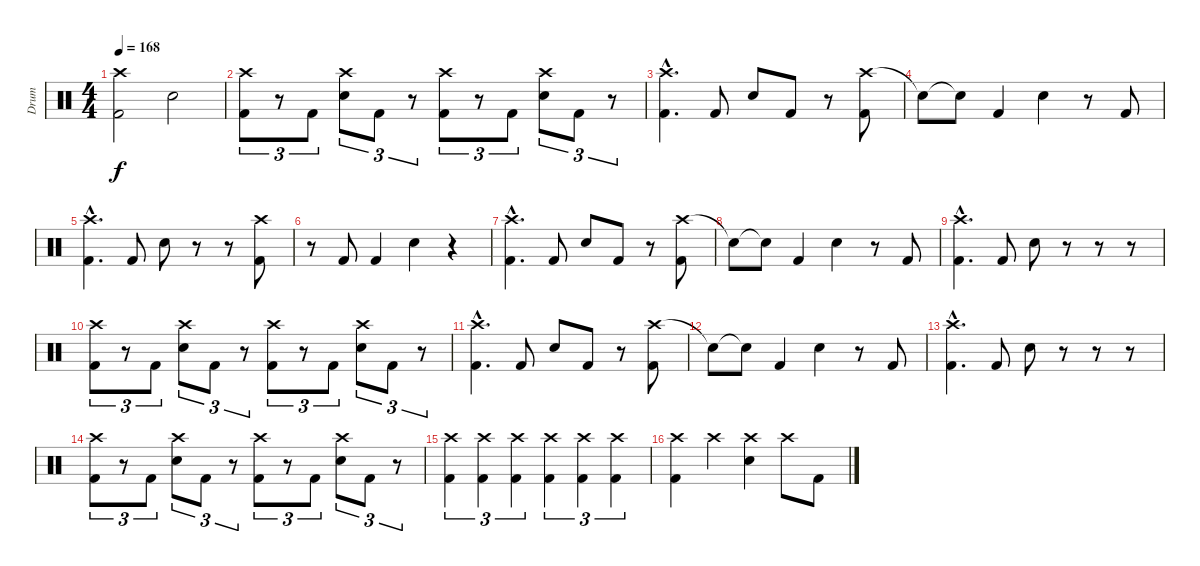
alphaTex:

\track ("Drum" "Drum") {instrument percussion}
\staff {score}
\articulation defaults
\ts (4 4)
\tempo 168
\clef neutral
\ks c
("Crash high (hit)" "Kick (hit) 2").2{dy f} "Electric Snare (hit)".2 |
("Crash high (hit)" "Kick (hit) 2").8{tu (3 2)} r.8{tu (3 2)} "Kick (hit) 2".8{tu (3 2)} ("Crash high (hit)" "Electric Snare (hit)").8{tu (3 2)} "Kick (hit) 2".8{tu (3 2)} r.8{tu (3 2)} ("Crash high (hit)" "Kick (hit) 2").8{tu (3 2)} r.8{tu (3 2)} "Kick (hit) 2".8{tu (3 2)} ("Crash high (hit)" "Electric Snare (hit)").8{tu (3 2)} "Kick (hit) 2".8{tu (3 2)} r.8{tu (3 2)} |
("Crash high (hit)"{hac} "Kick (hit) 2"{hac}).4{d} "Kick (hit) 2".8 "Electric Snare (hit)".8 "Kick (hit) 2".8 r.8 ("Crash high (hit)" "Kick (hit) 2").8 |
"Snare (hit)"{t}.8 "Snare (hit)"{t}.8 "Kick (hit) 2".4 "Electric Snare (hit)".4 r.8 "Kick (hit) 2".8 |
("Crash high (hit)"{hac} "Kick (hit) 2"{hac}).4{d} "Kick (hit) 2".8 "Electric Snare (hit)".8 r.8 r.8 ("Crash high (hit)" "Kick (hit) 2").8 |
r.8 "Kick (hit) 2".8 "Kick (hit) 2".4 "Electric Snare (hit)".4 r.4 |
("Crash high (hit)"{hac} "Kick (hit) 2"{hac}).4{d} "Kick (hit) 2".8 "Electric Snare (hit)".8 "Kick (hit) 2".8 r.8 ("Crash high (hit)" "Kick (hit) 2").8 |
"Snare (hit)"{t}.8 "Snare (hit)"{t}.8 "Kick (hit) 2".4 "Electric Snare (hit)".4 r.8 "Kick (hit) 2".8 |
("Crash high (hit)"{hac} "Kick (hit) 2"{hac}).4{d} "Kick (hit) 2".8 "Electric Snare (hit)".8 r.8 r.8 r.8 |
("Crash high (hit)" "Kick (hit) 2").8{tu (3 2)} r.8{tu (3 2)} "Kick (hit) 2".8{tu (3 2)} ("Crash high (hit)" "Electric Snare (hit)").8{tu (3 2)} "Kick (hit) 2".8{tu (3 2)} r.8{tu (3 2)} ("Crash high (hit)" "Kick (hit) 2").8{tu (3 2)} r.8{tu (3 2)} "Kick (hit) 2".8{tu (3 2)} ("Crash high (hit)" "Electric Snare (hit)").8{tu (3 2)} "Kick (hit) 2".8{tu (3 2)} r.8{tu (3 2)} |
("Crash high (hit)"{hac} "Kick (hit) 2"{hac}).4{d} "Kick (hit) 2".8 "Electric Snare (hit)".8 "Kick (hit) 2".8 r.8 ("Crash high (hit)" "Kick (hit) 2").8 |
"Snare (hit)"{t}.8 "Snare (hit)"{t}.8 "Kick (hit) 2".4 "Electric Snare (hit)".4 r.8 "Kick (hit) 2".8 |
("Crash high (hit)"{hac} "Kick (hit) 2"{hac}).4{d} "Kick (hit) 2".8 "Electric Snare (hit)".8 r.8 r.8 r.8 |
("Crash high (hit)" "Kick (hit) 2").8{tu (3 2)} r.8{tu (3 2)} "Kick (hit) 2".8{tu (3 2)} ("Crash high (hit)" "Electric Snare (hit)").8{tu (3 2)} "Kick (hit) 2".8{tu (3 2)} r.8{tu (3 2)} ("Crash high (hit)" "Kick (hit) 2").8{tu (3 2)} r.8{tu (3 2)} "Kick (hit) 2".8{tu (3 2)} ("Crash high (hit)" "Electric Snare (hit)").8{tu (3 2)} "Kick (hit) 2".8{tu (3 2)} r.8{tu (3 2)} |
("Crash high (hit)" "Kick (hit) 2").4{tu (3 2)} ("Crash high (hit)" "Kick (hit) 2").4{tu (3 2)} ("Crash high (hit)" "Kick (hit) 2").4{tu (3 2)} ("Crash high (hit)" "Kick (hit) 2").4{tu (3 2)} ("Crash high (hit)" "Kick (hit) 2").4{tu (3 2)} ("Crash high (hit)" "Kick (hit) 2").4{tu (3 2)} |
("Crash high (hit)" "Kick (hit) 2").4 "Crash high (hit)".4 ("Crash high (hit)" "Electric Snare (hit)").4 "Crash high (hit)".8 "Kick (hit) 2".8
